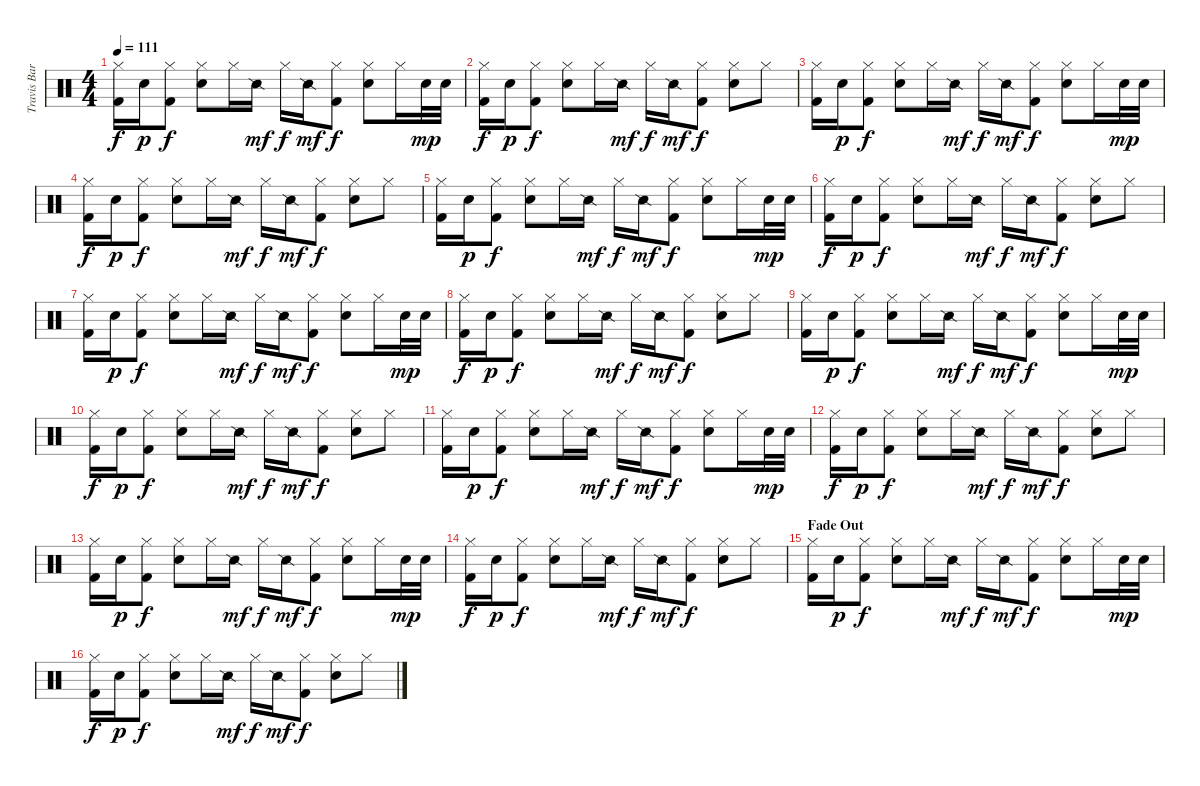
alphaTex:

\track ("Travis Barker - Drums" "Travis Bar") {instrument percussion}
\staff {score}
\articulation defaults
\ts (4 4)
\tempo 111
\clef neutral
\ks c
("Hi-Hat (closed)" "Kick (hit) 2").16{dy f} "Electric Snare (hit)".16{dy p} ("Hi-Hat (closed)" "Kick (hit) 2").8{dy f} ("Hi-Hat (closed)" "Electric Snare (hit)").8 "Hi-Hat (closed)".16 "Snare (side stick) 2".16{dy mf} "Hi-Hat (closed)".16{dy f} "Snare (side stick) 2".16{dy mf} ("Hi-Hat (closed)" "Kick (hit) 2").8{dy f} ("Hi-Hat (closed)" "Electric Snare (hit)").8 "Hi-Hat (closed)".16 "Electric Snare (hit)".32{dy mp} "Electric Snare (hit)".32 |
("Hi-Hat (closed)" "Kick (hit) 2").16{dy f} "Electric Snare (hit)".16{dy p} ("Hi-Hat (closed)" "Kick (hit) 2").8{dy f} ("Hi-Hat (closed)" "Electric Snare (hit)").8 "Hi-Hat (closed)".16 "Snare (side stick) 2".16{dy mf} "Hi-Hat (closed)".16{dy f} "Snare (side stick) 2".16{dy mf} ("Hi-Hat (closed)" "Kick (hit) 2").8{dy f} ("Hi-Hat (closed)" "Electric Snare (hit)").8 "Hi-Hat (closed)".8 |
("Hi-Hat (closed)" "Kick (hit) 2").16 "Electric Snare (hit)".16{dy p} ("Hi-Hat (closed)" "Kick (hit) 2").8{dy f} ("Hi-Hat (closed)" "Electric Snare (hit)").8 "Hi-Hat (closed)".16 "Snare (side stick) 2".16{dy mf} "Hi-Hat (closed)".16{dy f} "Snare (side stick) 2".16{dy mf} ("Hi-Hat (closed)" "Kick (hit) 2").8{dy f} ("Hi-Hat (closed)" "Electric Snare (hit)").8 "Hi-Hat (closed)".16 "Electric Snare (hit)".32{dy mp} "Electric Snare (hit)".32 |
("Hi-Hat (closed)" "Kick (hit) 2").16{dy f} "Electric Snare (hit)".16{dy p} ("Hi-Hat (closed)" "Kick (hit) 2").8{dy f} ("Hi-Hat (closed)" "Electric Snare (hit)").8 "Hi-Hat (closed)".16 "Snare (side stick) 2".16{dy mf} "Hi-Hat (closed)".16{dy f} "Snare (side stick) 2".16{dy mf} ("Hi-Hat (closed)" "Kick (hit) 2").8{dy f} ("Hi-Hat (closed)" "Electric Snare (hit)").8 "Hi-Hat (closed)".8 |
("Hi-Hat (closed)" "Kick (hit) 2").16 "Electric Snare (hit)".16{dy p} ("Hi-Hat (closed)" "Kick (hit) 2").8{dy f} ("Hi-Hat (closed)" "Electric Snare (hit)").8 "Hi-Hat (closed)".16 "Snare (side stick) 2".16{dy mf} "Hi-Hat (closed)".16{dy f} "Snare (side stick) 2".16{dy mf} ("Hi-Hat (closed)" "Kick (hit) 2").8{dy f} ("Hi-Hat (closed)" "Electric Snare (hit)").8 "Hi-Hat (closed)".16 "Electric Snare (hit)".32{dy mp} "Electric Snare (hit)".32 |
("Hi-Hat (closed)" "Kick (hit) 2").16{dy f} "Electric Snare (hit)".16{dy p} ("Hi-Hat (closed)" "Kick (hit) 2").8{dy f} ("Hi-Hat (closed)" "Electric Snare (hit)").8 "Hi-Hat (closed)".16 "Snare (side stick) 2".16{dy mf} "Hi-Hat (closed)".16{dy f} "Snare (side stick) 2".16{dy mf} ("Hi-Hat (closed)" "Kick (hit) 2").8{dy f} ("Hi-Hat (closed)" "Electric Snare (hit)").8 "Hi-Hat (closed)".8 |
("Hi-Hat (closed)" "Kick (hit) 2").16 "Electric Snare (hit)".16{dy p} ("Hi-Hat (closed)" "Kick (hit) 2").8{dy f} ("Hi-Hat (closed)" "Electric Snare (hit)").8 "Hi-Hat (closed)".16 "Snare (side stick) 2".16{dy mf} "Hi-Hat (closed)".16{dy f} "Snare (side stick) 2".16{dy mf} ("Hi-Hat (closed)" "Kick (hit) 2").8{dy f} ("Hi-Hat (closed)" "Electric Snare (hit)").8 "Hi-Hat (closed)".16 "Electric Snare (hit)".32{dy mp} "Electric Snare (hit)".32 |
("Hi-Hat (closed)" "Kick (hit) 2").16{dy f} "Electric Snare (hit)".16{dy p} ("Hi-Hat (closed)" "Kick (hit) 2").8{dy f} ("Hi-Hat (closed)" "Electric Snare (hit)").8 "Hi-Hat (closed)".16 "Snare (side stick) 2".16{dy mf} "Hi-Hat (closed)".16{dy f} "Snare (side stick) 2".16{dy mf} ("Hi-Hat (closed)" "Kick (hit) 2").8{dy f} ("Hi-Hat (closed)" "Electric Snare (hit)").8 "Hi-Hat (closed)".8 |
("Hi-Hat (closed)" "Kick (hit) 2").16 "Electric Snare (hit)".16{dy p} ("Hi-Hat (closed)" "Kick (hit) 2").8{dy f} ("Hi-Hat (closed)" "Electric Snare (hit)").8 "Hi-Hat (closed)".16 "Snare (side stick) 2".16{dy mf} "Hi-Hat (closed)".16{dy f} "Snare (side stick) 2".16{dy mf} ("Hi-Hat (closed)" "Kick (hit) 2").8{dy f} ("Hi-Hat (closed)" "Electric Snare (hit)").8 "Hi-Hat (closed)".16 "Electric Snare (hit)".32{dy mp} "Electric Snare (hit)".32 |
("Hi-Hat (closed)" "Kick (hit) 2").16{dy f} "Electric Snare (hit)".16{dy p} ("Hi-Hat (closed)" "Kick (hit) 2").8{dy f} ("Hi-Hat (closed)" "Electric Snare (hit)").8 "Hi-Hat (closed)".16 "Snare (side stick) 2".16{dy mf} "Hi-Hat (closed)".16{dy f} "Snare (side stick) 2".16{dy mf} ("Hi-Hat (closed)" "Kick (hit) 2").8{dy f} ("Hi-Hat (closed)" "Electric Snare (hit)").8 "Hi-Hat (closed)".8 |
("Hi-Hat (closed)" "Kick (hit) 2").16 "Electric Snare (hit)".16{dy p} ("Hi-Hat (closed)" "Kick (hit) 2").8{dy f} ("Hi-Hat (closed)" "Electric Snare (hit)").8 "Hi-Hat (closed)".16 "Snare (side stick) 2".16{dy mf} "Hi-Hat (closed)".16{dy f} "Snare (side stick) 2".16{dy mf} ("Hi-Hat (closed)" "Kick (hit) 2").8{dy f} ("Hi-Hat (closed)" "Electric Snare (hit)").8 "Hi-Hat (closed)".16 "Electric Snare (hit)".32{dy mp} "Electric Snare (hit)".32 |
("Hi-Hat (closed)" "Kick (hit) 2").16{dy f} "Electric Snare (hit)".16{dy p} ("Hi-Hat (closed)" "Kick (hit) 2").8{dy f} ("Hi-Hat (closed)" "Electric Snare (hit)").8 "Hi-Hat (closed)".16 "Snare (side stick) 2".16{dy mf} "Hi-Hat (closed)".16{dy f} "Snare (side stick) 2".16{dy mf} ("Hi-Hat (closed)" "Kick (hit) 2").8{dy f} ("Hi-Hat (closed)" "Electric Snare (hit)").8 "Hi-Hat (closed)".8 |
("Hi-Hat (closed)" "Kick (hit) 2").16 "Electric Snare (hit)".16{dy p} ("Hi-Hat (closed)" "Kick (hit) 2").8{dy f} ("Hi-Hat (closed)" "Electric Snare (hit)").8 "Hi-Hat (closed)".16 "Snare (side stick) 2".16{dy mf} "Hi-Hat (closed)".16{dy f} "Snare (side stick) 2".16{dy mf} ("Hi-Hat (closed)" "Kick (hit) 2").8{dy f} ("Hi-Hat (closed)" "Electric Snare (hit)").8 "Hi-Hat (closed)".16 "Electric Snare (hit)".32{dy mp} "Electric Snare (hit)".32 |
("Hi-Hat (closed)" "Kick (hit) 2").16{dy f} "Electric Snare (hit)".16{dy p} ("Hi-Hat (closed)" "Kick (hit) 2").8{dy f} ("Hi-Hat (closed)" "Electric Snare (hit)").8 "Hi-Hat (closed)".16 "Snare (side stick) 2".16{dy mf} "Hi-Hat (closed)".16{dy f} "Snare (side stick) 2".16{dy mf} ("Hi-Hat (closed)" "Kick (hit) 2").8{dy f} ("Hi-Hat (closed)" "Electric Snare (hit)").8 "Hi-Hat (closed)".8 |
\section ("" "Fade Out")
("Hi-Hat (closed)" "Kick (hit) 2").16 "Electric Snare (hit)".16{dy p} ("Hi-Hat (closed)" "Kick (hit) 2").8{dy f} ("Hi-Hat (closed)" "Electric Snare (hit)").8 "Hi-Hat (closed)".16 "Snare (side stick) 2".16{dy mf} "Hi-Hat (closed)".16{dy f} "Snare (side stick) 2".16{dy mf} ("Hi-Hat (closed)" "Kick (hit) 2").8{dy f} ("Hi-Hat (closed)" "Electric Snare (hit)").8 "Hi-Hat (closed)".16 "Electric Snare (hit)".32{dy mp} "Electric Snare (hit)".32 |
("Hi-Hat (closed)" "Kick (hit) 2").16{dy f} "Electric Snare (hit)".16{dy p} ("Hi-Hat (closed)" "Kick (hit) 2").8{dy f} ("Hi-Hat (closed)" "Electric Snare (hit)").8 "Hi-Hat (closed)".16 "Snare (side stick) 2".16{dy mf} "Hi-Hat (closed)".16{dy f} "Snare (side stick) 2".16{dy mf} ("Hi-Hat (closed)" "Kick (hit) 2").8{dy f} ("Hi-Hat (closed)" "Electric Snare (hit)").8 "Hi-Hat (closed)".8
